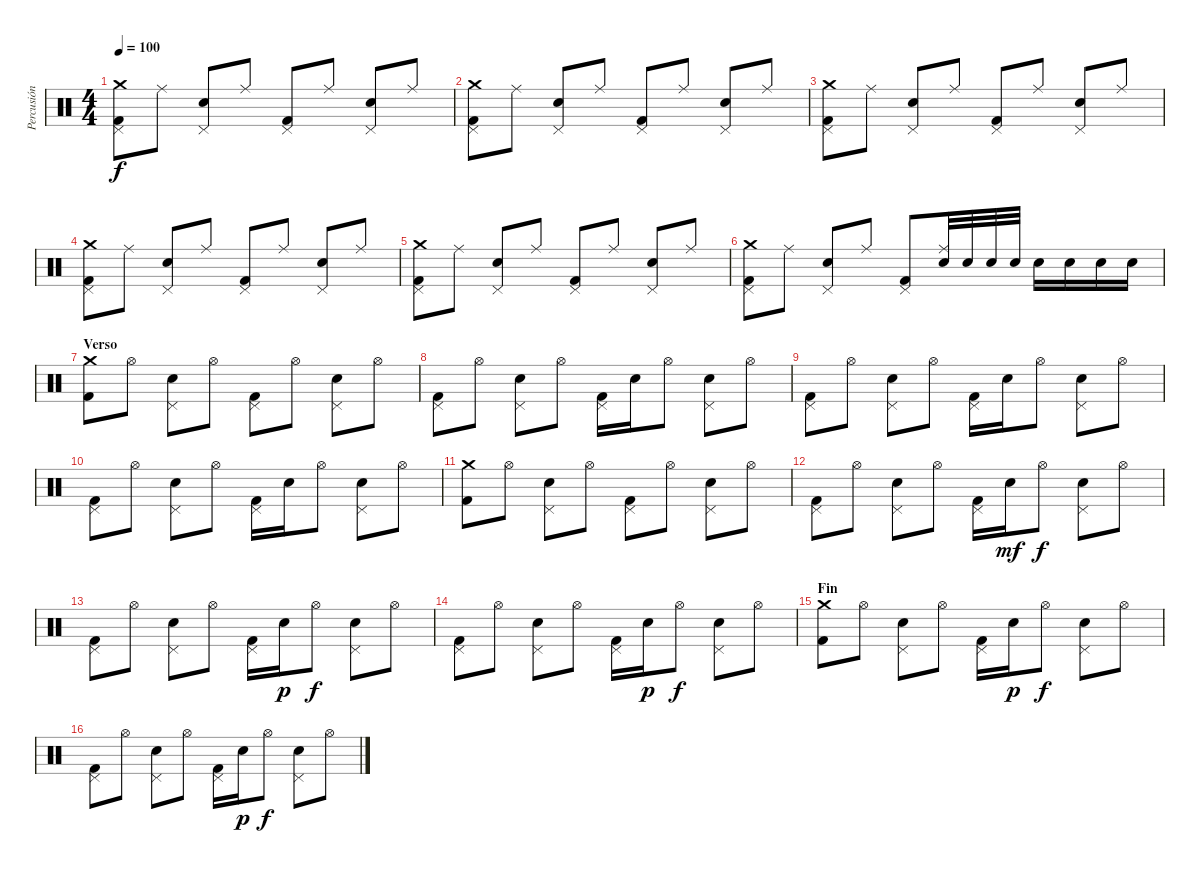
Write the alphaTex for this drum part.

\track ("Percusión" "Percusión") {instrument percussion}
\staff {score}
\articulation defaults
\ts (4 4)
\tempo 100
\clef neutral
\ks c
("Crash medium (hit)" "Kick (hit) 2" "Pedal Hi-Hat (hit)").8{dy f} "Ride (middle)".8 ("Pedal Hi-Hat (hit)" "Electric Snare (hit)").8 "Ride (middle)".8 ("Pedal Hi-Hat (hit)" "Kick (hit) 2").8 "Ride (middle)".8 ("Pedal Hi-Hat (hit)" "Electric Snare (hit)").8 "Ride (middle)".8 |
("Crash medium (hit)" "Kick (hit) 2" "Pedal Hi-Hat (hit)").8 "Ride (middle)".8 ("Pedal Hi-Hat (hit)" "Electric Snare (hit)").8 "Ride (middle)".8 ("Pedal Hi-Hat (hit)" "Kick (hit) 2").8 "Ride (middle)".8 ("Pedal Hi-Hat (hit)" "Electric Snare (hit)").8 "Ride (middle)".8 |
("Crash medium (hit)" "Kick (hit) 2" "Pedal Hi-Hat (hit)").8 "Ride (middle)".8 ("Pedal Hi-Hat (hit)" "Electric Snare (hit)").8 "Ride (middle)".8 ("Pedal Hi-Hat (hit)" "Kick (hit) 2").8 "Ride (middle)".8 ("Pedal Hi-Hat (hit)" "Electric Snare (hit)").8 "Ride (middle)".8 |
("Crash medium (hit)" "Kick (hit) 2" "Pedal Hi-Hat (hit)").8 "Ride (middle)".8 ("Pedal Hi-Hat (hit)" "Electric Snare (hit)").8 "Ride (middle)".8 ("Pedal Hi-Hat (hit)" "Kick (hit) 2").8 "Ride (middle)".8 ("Pedal Hi-Hat (hit)" "Electric Snare (hit)").8 "Ride (middle)".8 |
("Crash medium (hit)" "Kick (hit) 2" "Pedal Hi-Hat (hit)").8 "Ride (middle)".8 ("Pedal Hi-Hat (hit)" "Electric Snare (hit)").8 "Ride (middle)".8 ("Pedal Hi-Hat (hit)" "Kick (hit) 2").8 "Ride (middle)".8 ("Pedal Hi-Hat (hit)" "Electric Snare (hit)").8 "Ride (middle)".8 |
("Crash medium (hit)" "Kick (hit) 2" "Pedal Hi-Hat (hit)").8 "Ride (middle)".8 ("Pedal Hi-Hat (hit)" "Electric Snare (hit)").8 "Ride (middle)".8 ("Pedal Hi-Hat (hit)" "Kick (hit) 2").8 ("Ride (middle)" "Electric Snare (hit)").32 "Electric Snare (hit)".32 "Electric Snare (hit)".32 "Electric Snare (hit)".32 "Electric Snare (hit)".16 "Electric Snare (hit)".16 "Electric Snare (hit)".16 "Electric Snare (hit)".16 |
\section ("" "Verso")
("Crash medium (hit)" "Kick (hit) 2").8 "Hi-Hat (open)".8 ("Electric Snare (hit)" "Pedal Hi-Hat (hit)").8 "Hi-Hat (open)".8 ("Pedal Hi-Hat (hit)" "Kick (hit) 2").8 "Hi-Hat (open)".8 ("Electric Snare (hit)" "Pedal Hi-Hat (hit)").8 "Hi-Hat (open)".8 |
("Pedal Hi-Hat (hit)" "Kick (hit) 2").8 "Hi-Hat (open)".8 ("Electric Snare (hit)" "Pedal Hi-Hat (hit)").8 "Hi-Hat (open)".8 ("Pedal Hi-Hat (hit)" "Kick (hit) 2").16 "Electric Snare (hit)".16 "Hi-Hat (open)".8 ("Electric Snare (hit)" "Pedal Hi-Hat (hit)").8 "Hi-Hat (open)".8 |
("Pedal Hi-Hat (hit)" "Kick (hit) 2").8 "Hi-Hat (open)".8 ("Electric Snare (hit)" "Pedal Hi-Hat (hit)").8 "Hi-Hat (open)".8 ("Pedal Hi-Hat (hit)" "Kick (hit) 2").16 "Electric Snare (hit)".16 "Hi-Hat (open)".8 ("Electric Snare (hit)" "Pedal Hi-Hat (hit)").8 "Hi-Hat (open)".8 |
("Pedal Hi-Hat (hit)" "Kick (hit) 2").8 "Hi-Hat (open)".8 ("Electric Snare (hit)" "Pedal Hi-Hat (hit)").8 "Hi-Hat (open)".8 ("Pedal Hi-Hat (hit)" "Kick (hit) 2").16 "Electric Snare (hit)".16 "Hi-Hat (open)".8 ("Electric Snare (hit)" "Pedal Hi-Hat (hit)").8 "Hi-Hat (open)".8 |
("Crash medium (hit)" "Kick (hit) 2").8 "Hi-Hat (open)".8 ("Electric Snare (hit)" "Pedal Hi-Hat (hit)").8 "Hi-Hat (open)".8 ("Pedal Hi-Hat (hit)" "Kick (hit) 2").8 "Hi-Hat (open)".8 ("Electric Snare (hit)" "Pedal Hi-Hat (hit)").8 "Hi-Hat (open)".8 |
("Pedal Hi-Hat (hit)" "Kick (hit) 2").8 "Hi-Hat (open)".8 ("Electric Snare (hit)" "Pedal Hi-Hat (hit)").8 "Hi-Hat (open)".8 ("Pedal Hi-Hat (hit)" "Kick (hit) 2").16 "Electric Snare (hit)".16{dy mf} "Hi-Hat (open)".8{dy f} ("Electric Snare (hit)" "Pedal Hi-Hat (hit)").8 "Hi-Hat (open)".8 |
("Pedal Hi-Hat (hit)" "Kick (hit) 2").8 "Hi-Hat (open)".8 ("Electric Snare (hit)" "Pedal Hi-Hat (hit)").8 "Hi-Hat (open)".8 ("Pedal Hi-Hat (hit)" "Kick (hit) 2").16 "Electric Snare (hit)".16{dy p} "Hi-Hat (open)".8{dy f} ("Electric Snare (hit)" "Pedal Hi-Hat (hit)").8 "Hi-Hat (open)".8 |
("Pedal Hi-Hat (hit)" "Kick (hit) 2").8 "Hi-Hat (open)".8 ("Electric Snare (hit)" "Pedal Hi-Hat (hit)").8 "Hi-Hat (open)".8 ("Pedal Hi-Hat (hit)" "Kick (hit) 2").16 "Electric Snare (hit)".16{dy p} "Hi-Hat (open)".8{dy f} ("Electric Snare (hit)" "Pedal Hi-Hat (hit)").8 "Hi-Hat (open)".8 |
\section ("" "Fin")
("Crash medium (hit)" "Kick (hit) 2").8 "Hi-Hat (open)".8 ("Electric Snare (hit)" "Pedal Hi-Hat (hit)").8 "Hi-Hat (open)".8 ("Pedal Hi-Hat (hit)" "Kick (hit) 2").16 "Electric Snare (hit)".16{dy p} "Hi-Hat (open)".8{dy f} ("Electric Snare (hit)" "Pedal Hi-Hat (hit)").8 "Hi-Hat (open)".8 |
("Pedal Hi-Hat (hit)" "Kick (hit) 2").8 "Hi-Hat (open)".8 ("Electric Snare (hit)" "Pedal Hi-Hat (hit)").8 "Hi-Hat (open)".8 ("Pedal Hi-Hat (hit)" "Kick (hit) 2").16 "Electric Snare (hit)".16{dy p} "Hi-Hat (open)".8{dy f} ("Electric Snare (hit)" "Pedal Hi-Hat (hit)").8 "Hi-Hat (open)".8
